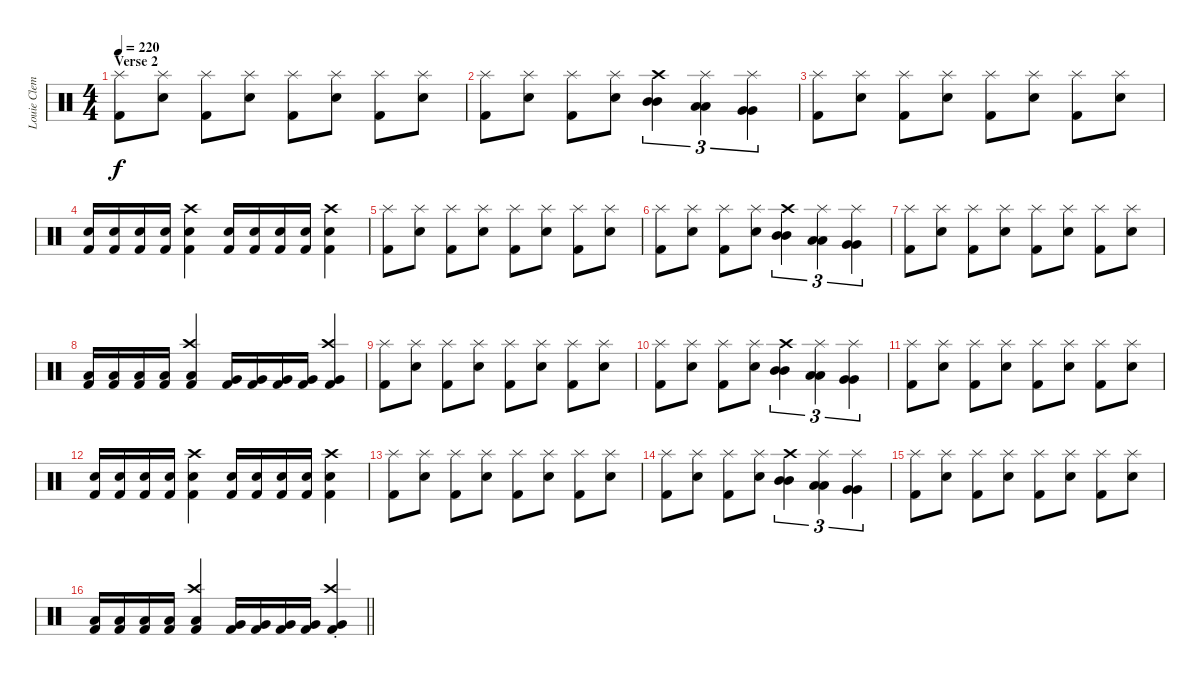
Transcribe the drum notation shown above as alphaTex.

\track ("Louie Clemente (Drums)" "Louie Clem") {instrument percussion}
\staff {score}
\articulation defaults
\ts (4 4)
\section ("" "Verse 2")
\tempo 220
\clef neutral
\ks c
("Splash (hit)" "Kick (hit) 2").8{dy f} ("Splash (hit)" "Electric Snare (hit)").8 ("Splash (hit)" "Kick (hit) 2").8 ("Splash (hit)" "Electric Snare (hit)").8 ("Splash (hit)" "Kick (hit) 2").8 ("Splash (hit)" "Electric Snare (hit)").8 ("Splash (hit)" "Kick (hit) 2").8 ("Splash (hit)" "Electric Snare (hit)").8 |
("Splash (hit)" "Kick (hit) 2").8 ("Splash (hit)" "Electric Snare (hit)").8 ("Splash (hit)" "Kick (hit) 2").8 ("Splash (hit)" "Electric Snare (hit)").8 ("Crash high (hit)" "Mid Tom (hit)" "Mid Tom (hit)").4{tu (3 2)} ("Splash (hit)" "Low Tom (hit)" "Low Tom (hit)").4{tu (3 2)} ("Splash (hit)" "Very Low Tom (hit)" "Very Low Tom (hit)").4{tu (3 2)} |
("Splash (hit)" "Kick (hit) 2").8 ("Splash (hit)" "Electric Snare (hit)").8 ("Splash (hit)" "Kick (hit) 2").8 ("Splash (hit)" "Electric Snare (hit)").8 ("Splash (hit)" "Kick (hit) 2").8 ("Splash (hit)" "Electric Snare (hit)").8 ("Splash (hit)" "Kick (hit) 2").8 ("Splash (hit)" "Electric Snare (hit)").8 |
("Electric Snare (hit)" "Kick (hit) 2").16 ("Electric Snare (hit)" "Kick (hit) 2").16 ("Electric Snare (hit)" "Kick (hit) 2").16 ("Electric Snare (hit)" "Kick (hit) 2").16 ("Crash high (hit)" "Electric Snare (hit)" "Kick (hit) 2").4 ("Electric Snare (hit)" "Kick (hit) 2").16 ("Electric Snare (hit)" "Kick (hit) 2").16 ("Electric Snare (hit)" "Kick (hit) 2").16 ("Electric Snare (hit)" "Kick (hit) 2").16 ("Crash high (hit)" "Electric Snare (hit)" "Kick (hit) 2").4 |
("Splash (hit)" "Kick (hit) 2").8 ("Splash (hit)" "Electric Snare (hit)").8 ("Splash (hit)" "Kick (hit) 2").8 ("Splash (hit)" "Electric Snare (hit)").8 ("Splash (hit)" "Kick (hit) 2").8 ("Splash (hit)" "Electric Snare (hit)").8 ("Splash (hit)" "Kick (hit) 2").8 ("Splash (hit)" "Electric Snare (hit)").8 |
("Splash (hit)" "Kick (hit) 2").8 ("Splash (hit)" "Electric Snare (hit)").8 ("Splash (hit)" "Kick (hit) 2").8 ("Splash (hit)" "Electric Snare (hit)").8 ("Crash high (hit)" "Mid Tom (hit)" "Mid Tom (hit)").4{tu (3 2)} ("Splash (hit)" "Low Tom (hit)" "Low Tom (hit)").4{tu (3 2)} ("Splash (hit)" "Very Low Tom (hit)" "Very Low Tom (hit)").4{tu (3 2)} |
("Splash (hit)" "Kick (hit) 2").8 ("Splash (hit)" "Electric Snare (hit)").8 ("Splash (hit)" "Kick (hit) 2").8 ("Splash (hit)" "Electric Snare (hit)").8 ("Splash (hit)" "Kick (hit) 2").8 ("Splash (hit)" "Electric Snare (hit)").8 ("Splash (hit)" "Kick (hit) 2").8 ("Splash (hit)" "Electric Snare (hit)").8 |
("Low Tom (hit)" "Kick (hit) 2").16 ("Low Tom (hit)" "Kick (hit) 2").16 ("Low Tom (hit)" "Kick (hit) 2").16 ("Low Tom (hit)" "Kick (hit) 2").16 ("Crash high (hit)" "Low Tom (hit)" "Kick (hit) 2").4 ("Very Low Tom (hit)" "Kick (hit) 2").16 ("Very Low Tom (hit)" "Kick (hit) 2").16 ("Very Low Tom (hit)" "Kick (hit) 2").16 ("Very Low Tom (hit)" "Kick (hit) 2").16 ("Crash high (hit)" "Very Low Tom (hit)" "Kick (hit) 2").4 |
("Splash (hit)" "Kick (hit) 2").8 ("Splash (hit)" "Electric Snare (hit)").8 ("Splash (hit)" "Kick (hit) 2").8 ("Splash (hit)" "Electric Snare (hit)").8 ("Splash (hit)" "Kick (hit) 2").8 ("Splash (hit)" "Electric Snare (hit)").8 ("Splash (hit)" "Kick (hit) 2").8 ("Splash (hit)" "Electric Snare (hit)").8 |
("Splash (hit)" "Kick (hit) 2").8 ("Splash (hit)" "Electric Snare (hit)").8 ("Splash (hit)" "Kick (hit) 2").8 ("Splash (hit)" "Electric Snare (hit)").8 ("Crash high (hit)" "Mid Tom (hit)" "Mid Tom (hit)").4{tu (3 2)} ("Splash (hit)" "Low Tom (hit)" "Low Tom (hit)").4{tu (3 2)} ("Splash (hit)" "Very Low Tom (hit)" "Very Low Tom (hit)").4{tu (3 2)} |
("Splash (hit)" "Kick (hit) 2").8 ("Splash (hit)" "Electric Snare (hit)").8 ("Splash (hit)" "Kick (hit) 2").8 ("Splash (hit)" "Electric Snare (hit)").8 ("Splash (hit)" "Kick (hit) 2").8 ("Splash (hit)" "Electric Snare (hit)").8 ("Splash (hit)" "Kick (hit) 2").8 ("Splash (hit)" "Electric Snare (hit)").8 |
("Electric Snare (hit)" "Kick (hit) 2").16 ("Electric Snare (hit)" "Kick (hit) 2").16 ("Electric Snare (hit)" "Kick (hit) 2").16 ("Electric Snare (hit)" "Kick (hit) 2").16 ("Crash high (hit)" "Electric Snare (hit)" "Kick (hit) 2").4 ("Electric Snare (hit)" "Kick (hit) 2").16 ("Electric Snare (hit)" "Kick (hit) 2").16 ("Electric Snare (hit)" "Kick (hit) 2").16 ("Electric Snare (hit)" "Kick (hit) 2").16 ("Crash high (hit)" "Electric Snare (hit)" "Kick (hit) 2").4 |
("Splash (hit)" "Kick (hit) 2").8 ("Splash (hit)" "Electric Snare (hit)").8 ("Splash (hit)" "Kick (hit) 2").8 ("Splash (hit)" "Electric Snare (hit)").8 ("Splash (hit)" "Kick (hit) 2").8 ("Splash (hit)" "Electric Snare (hit)").8 ("Splash (hit)" "Kick (hit) 2").8 ("Splash (hit)" "Electric Snare (hit)").8 |
("Splash (hit)" "Kick (hit) 2").8 ("Splash (hit)" "Electric Snare (hit)").8 ("Splash (hit)" "Kick (hit) 2").8 ("Splash (hit)" "Electric Snare (hit)").8 ("Crash high (hit)" "Mid Tom (hit)" "Mid Tom (hit)").4{tu (3 2)} ("Splash (hit)" "Low Tom (hit)" "Low Tom (hit)").4{tu (3 2)} ("Splash (hit)" "Very Low Tom (hit)" "Very Low Tom (hit)").4{tu (3 2)} |
("Splash (hit)" "Kick (hit) 2").8 ("Splash (hit)" "Electric Snare (hit)").8 ("Splash (hit)" "Kick (hit) 2").8 ("Splash (hit)" "Electric Snare (hit)").8 ("Splash (hit)" "Kick (hit) 2").8 ("Splash (hit)" "Electric Snare (hit)").8 ("Splash (hit)" "Kick (hit) 2").8 ("Splash (hit)" "Electric Snare (hit)").8 |
\barLineRight lightlight
("Low Tom (hit)" "Kick (hit) 2").16 ("Low Tom (hit)" "Kick (hit) 2").16 ("Low Tom (hit)" "Kick (hit) 2").16 ("Low Tom (hit)" "Kick (hit) 2").16 ("Crash high (hit)" "Low Tom (hit)" "Kick (hit) 2").4 ("Very Low Tom (hit)" "Kick (hit) 2").16 ("Very Low Tom (hit)" "Kick (hit) 2").16 ("Very Low Tom (hit)" "Kick (hit) 2").16 ("Very Low Tom (hit)" "Kick (hit) 2").16 ("Crash high (hit)"{st} "Very Low Tom (hit)" "Kick (hit) 2").4
